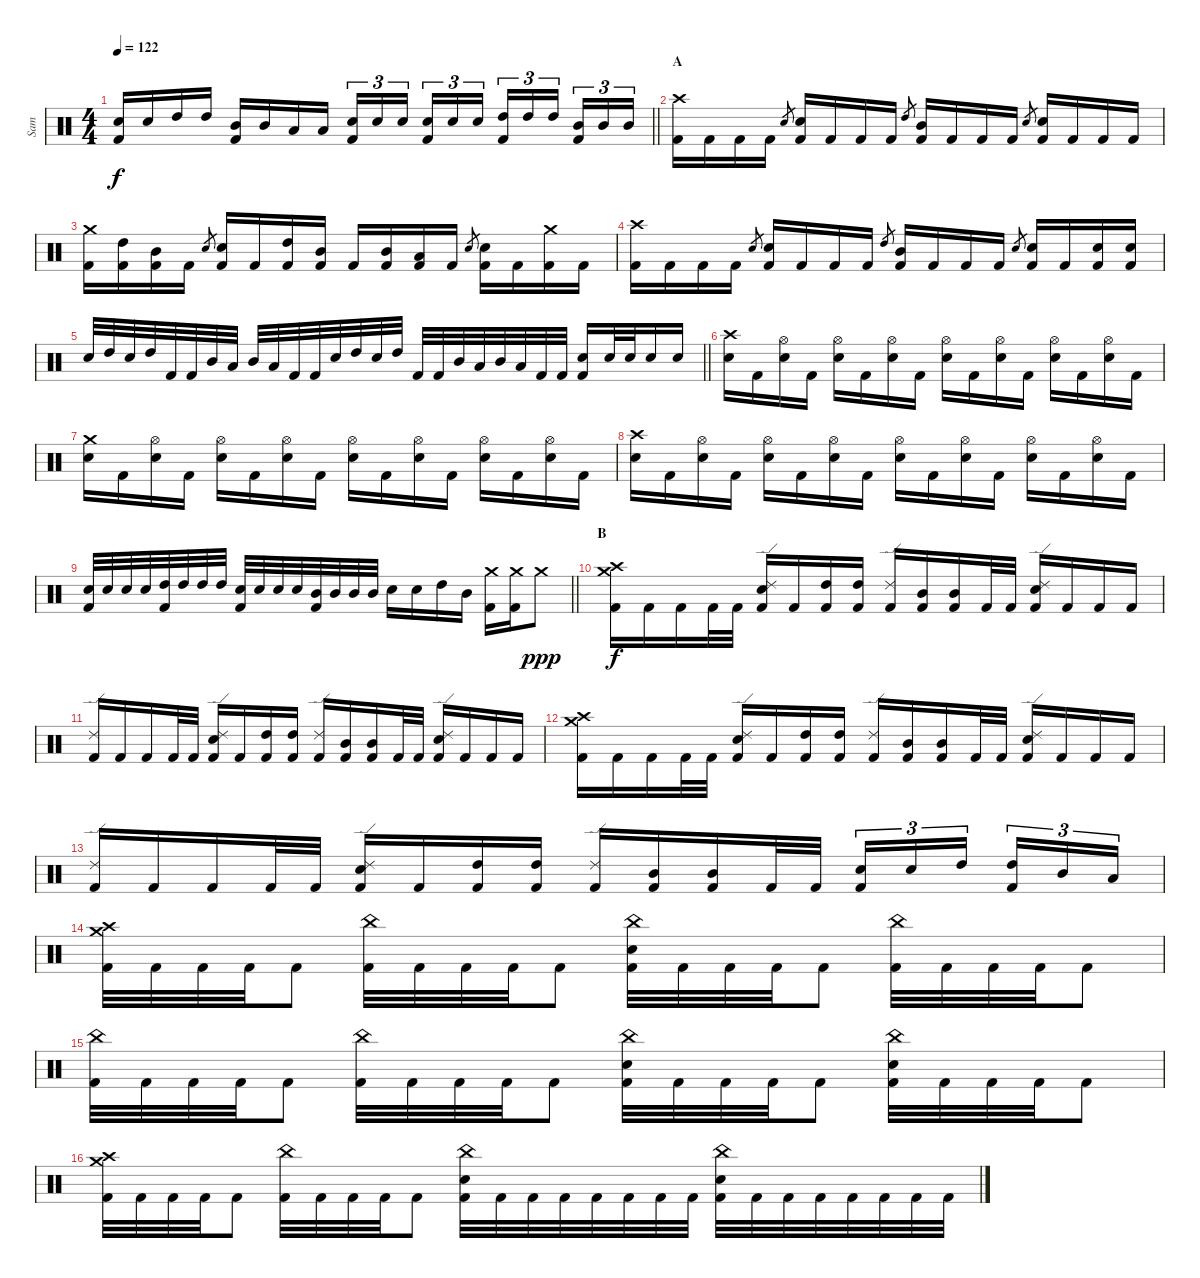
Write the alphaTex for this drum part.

\track ("Sam" "Sam") {solo instrument percussion}
\staff {score}
\articulation defaults
\ts (4 4)
\tempo 122
\clef neutral
\barLineRight lightlight
\ks c
("Electric Snare (hit)" "Kick (hit) 2").16{dy f} "Electric Snare (hit)".16 "High Tom (hit)".16 "High Tom (hit)".16 ("Mid Tom (hit)" "Kick (hit) 2").16 "Mid Tom (hit)".16 "Low Tom (hit)".16 "Low Tom (hit)".16 ("Electric Snare (hit)" "Kick (hit) 2").16{tu (3 2)} "Electric Snare (hit)".16{tu (3 2)} "Electric Snare (hit)".16{tu (3 2) beam splitsecondary} ("Electric Snare (hit)" "Kick (hit) 2").16{tu (3 2)} "Electric Snare (hit)".16{tu (3 2)} "Electric Snare (hit)".16{tu (3 2)} ("High Tom (hit)" "Kick (hit) 2").16{tu (3 2)} "High Tom (hit)".16{tu (3 2)} "High Tom (hit)".16{tu (3 2) beam splitsecondary} ("Mid Tom (hit)" "Kick (hit) 2").16{tu (3 2)} "Mid Tom (hit)".16{tu (3 2)} "Mid Tom (hit)".16{tu (3 2)} |
\section ("" "A")
("Crash high (hit)" "Kick (hit) 2").16 "Kick (hit) 2".16 "Kick (hit) 2".16 "Kick (hit) 2".16 "Electric Snare (hit)".8{gr} ("Electric Snare (hit)" "Kick (hit) 2").16 "Kick (hit) 2".16 "Kick (hit) 2".16 "Kick (hit) 2".16 "High Tom (hit)".8{gr} ("Mid Tom (hit)" "Kick (hit) 2").16 "Kick (hit) 2".16 "Kick (hit) 2".16 "Kick (hit) 2".16 "Electric Snare (hit)".8{gr} ("Electric Snare (hit)" "Kick (hit) 2").16 "Kick (hit) 2".16 "Kick (hit) 2".16 "Kick (hit) 2".16 |
("Crash medium (hit)" "Kick (hit) 2").16 ("High Tom (hit)" "Kick (hit) 2").16 ("Mid Tom (hit)" "Kick (hit) 2").16 "Kick (hit) 2".16 "Electric Snare (hit)".8{gr} ("Electric Snare (hit)" "Kick (hit) 2").16 "Kick (hit) 2".16 ("High Tom (hit)" "Kick (hit) 2").16 ("Mid Tom (hit)" "Kick (hit) 2").16 "Kick (hit) 2".16 ("Mid Tom (hit)" "Kick (hit) 2").16 ("Low Tom (hit)" "Kick (hit) 2").16 "Kick (hit) 2".16 "Electric Snare (hit)".8{gr} ("Electric Snare (hit)" "Kick (hit) 2").16 "Kick (hit) 2".16 ("Crash medium (hit)" "Kick (hit) 2").16 "Kick (hit) 2".16 |
("Crash high (hit)" "Kick (hit) 2").16 "Kick (hit) 2".16 "Kick (hit) 2".16 "Kick (hit) 2".16 "Electric Snare (hit)".8{gr} ("Electric Snare (hit)" "Kick (hit) 2").16 "Kick (hit) 2".16 "Kick (hit) 2".16 "Kick (hit) 2".16 "High Tom (hit)".8{gr} ("Mid Tom (hit)" "Kick (hit) 2").16 "Kick (hit) 2".16 "Kick (hit) 2".16 "Kick (hit) 2".16 "Electric Snare (hit)".8{gr} ("Electric Snare (hit)" "Kick (hit) 2").16 "Kick (hit) 2".16 ("Electric Snare (hit)" "Kick (hit) 2").16 ("Electric Snare (hit)" "Kick (hit) 2").16 |
\barLineRight lightlight "Electric Snare (hit)".32 "High Tom (hit)".32 "Electric Snare (hit)".32 "High Tom (hit)".32 "Kick (hit) 2".32 "Kick (hit) 2".32 "Mid Tom (hit)".32 "Low Tom (hit)".32 "Mid Tom (hit)".32 "Low Tom (hit)".32 "Kick (hit) 2".32 "Kick (hit) 2".32 "Electric Snare (hit)".32 "High Tom (hit)".32 "Electric Snare (hit)".32 "High Tom (hit)".32 "Kick (hit) 2".32 "Kick (hit) 2".32 "Mid Tom (hit)".32 "Low Tom (hit)".32 "Mid Tom (hit)".32 "Low Tom (hit)".32 "Kick (hit) 2".32 "Kick (hit) 2".32
("Electric Snare (hit)" "Kick (hit) 2").16 "Electric Snare (hit)".32 "Electric Snare (hit)".32 "Electric Snare (hit)".16 "Electric Snare (hit)".16 |
\section ("" " ")
("Crash high (hit)" "Electric Snare (hit)").16 "Kick (hit) 2".16 ("Hi-Hat (open)" "Electric Snare (hit)").16 "Kick (hit) 2".16 ("Hi-Hat (open)" "Electric Snare (hit)").16 "Kick (hit) 2".16 ("Hi-Hat (open)" "Electric Snare (hit)").16 "Kick (hit) 2".16 ("Hi-Hat (open)" "Electric Snare (hit)").16 "Kick (hit) 2".16 ("Hi-Hat (open)" "Electric Snare (hit)").16 "Kick (hit) 2".16 ("Hi-Hat (open)" "Electric Snare (hit)").16 "Kick (hit) 2".16 ("Hi-Hat (open)" "Electric Snare (hit)").16 "Kick (hit) 2".16 |
("Crash medium (hit)" "Electric Snare (hit)").16 "Kick (hit) 2".16 ("Hi-Hat (open)" "Electric Snare (hit)").16 "Kick (hit) 2".16 ("Hi-Hat (open)" "Electric Snare (hit)").16 "Kick (hit) 2".16 ("Hi-Hat (open)" "Electric Snare (hit)").16 "Kick (hit) 2".16 ("Hi-Hat (open)" "Electric Snare (hit)").16 "Kick (hit) 2".16 ("Hi-Hat (open)" "Electric Snare (hit)").16 "Kick (hit) 2".16 ("Hi-Hat (open)" "Electric Snare (hit)").16 "Kick (hit) 2".16 ("Hi-Hat (open)" "Electric Snare (hit)").16 "Kick (hit) 2".16 |
("Crash high (hit)" "Electric Snare (hit)").16 "Kick (hit) 2".16 ("Hi-Hat (open)" "Electric Snare (hit)").16 "Kick (hit) 2".16 ("Hi-Hat (open)" "Electric Snare (hit)").16 "Kick (hit) 2".16 ("Hi-Hat (open)" "Electric Snare (hit)").16 "Kick (hit) 2".16 ("Hi-Hat (open)" "Electric Snare (hit)").16 "Kick (hit) 2".16 ("Hi-Hat (open)" "Electric Snare (hit)").16 "Kick (hit) 2".16 ("Hi-Hat (open)" "Electric Snare (hit)").16 "Kick (hit) 2".16 ("Hi-Hat (open)" "Electric Snare (hit)").16 "Kick (hit) 2".16 |
\barLineRight lightlight
("Electric Snare (hit)" "Kick (hit) 2").32 "Electric Snare (hit)".32 "Electric Snare (hit)".32 "Electric Snare (hit)".32 ("High Tom (hit)" "Kick (hit) 2").32 "High Tom (hit)".32 "High Tom (hit)".32 "High Tom (hit)".32 ("Electric Snare (hit)" "Kick (hit) 2").32 "Electric Snare (hit)".32 "Electric Snare (hit)".32 "Electric Snare (hit)".32 ("Mid Tom (hit)" "Kick (hit) 2").32 "Mid Tom (hit)".32 "Mid Tom (hit)".32 "Mid Tom (hit)".32 "Electric Snare (hit)".16 "Electric Snare (hit)".16 "High Tom (hit)".16 "Mid Tom (hit)".16 ("Crash medium (hit)" "Kick (hit) 2").16 ("Crash medium (hit)" "Kick (hit) 2").16 "Crash medium (hit)".8{dy ppp} |
\section ("" "B")
("Crash high (hit)" "Crash medium (hit)" "Kick (hit) 2").16{dy f} "Kick (hit) 2".16 "Kick (hit) 2".16 "Kick (hit) 2".32 "Kick (hit) 2".32 ("Ride (edge) 2" "Electric Snare (hit)" "Kick (hit) 2").16 "Kick (hit) 2".16 ("High Tom (hit)" "Kick (hit) 2").16 ("High Tom (hit)" "Kick (hit) 2").16 ("Ride (edge) 2" "Kick (hit) 2").16 ("Mid Tom (hit)" "Kick (hit) 2").16 ("Mid Tom (hit)" "Kick (hit) 2").16 "Kick (hit) 2".32 "Kick (hit) 2".32 ("Ride (edge) 2" "Electric Snare (hit)" "Kick (hit) 2").16 "Kick (hit) 2".16 "Kick (hit) 2".16 "Kick (hit) 2".16 |
("Ride (edge) 2" "Kick (hit) 2").16 "Kick (hit) 2".16 "Kick (hit) 2".16 "Kick (hit) 2".32 "Kick (hit) 2".32 ("Ride (edge) 2" "Electric Snare (hit)" "Kick (hit) 2").16 "Kick (hit) 2".16 ("High Tom (hit)" "Kick (hit) 2").16 ("High Tom (hit)" "Kick (hit) 2").16 ("Ride (edge) 2" "Kick (hit) 2").16 ("Mid Tom (hit)" "Kick (hit) 2").16 ("Mid Tom (hit)" "Kick (hit) 2").16 "Kick (hit) 2".32 "Kick (hit) 2".32 ("Ride (edge) 2" "Electric Snare (hit)" "Kick (hit) 2").16 "Kick (hit) 2".16 "Kick (hit) 2".16 "Kick (hit) 2".16 |
("Crash high (hit)" "Crash medium (hit)" "Kick (hit) 2").16 "Kick (hit) 2".16 "Kick (hit) 2".16 "Kick (hit) 2".32 "Kick (hit) 2".32 ("Ride (edge) 2" "Electric Snare (hit)" "Kick (hit) 2").16 "Kick (hit) 2".16 ("High Tom (hit)" "Kick (hit) 2").16 ("High Tom (hit)" "Kick (hit) 2").16 ("Ride (edge) 2" "Kick (hit) 2").16 ("Mid Tom (hit)" "Kick (hit) 2").16 ("Mid Tom (hit)" "Kick (hit) 2").16 "Kick (hit) 2".32 "Kick (hit) 2".32 ("Ride (edge) 2" "Electric Snare (hit)" "Kick (hit) 2").16 "Kick (hit) 2".16 "Kick (hit) 2".16 "Kick (hit) 2".16 |
("Ride (edge) 2" "Kick (hit) 2").16 "Kick (hit) 2".16 "Kick (hit) 2".16 "Kick (hit) 2".32 "Kick (hit) 2".32 ("Ride (edge) 2" "Electric Snare (hit)" "Kick (hit) 2").16 "Kick (hit) 2".16 ("High Tom (hit)" "Kick (hit) 2").16 ("High Tom (hit)" "Kick (hit) 2").16 ("Ride (edge) 2" "Kick (hit) 2").16 ("Mid Tom (hit)" "Kick (hit) 2").16 ("Mid Tom (hit)" "Kick (hit) 2").16 "Kick (hit) 2".32 "Kick (hit) 2".32 ("Electric Snare (hit)" "Kick (hit) 2").16{tu (3 2)} "Electric Snare (hit)".16{tu (3 2)} "High Tom (hit)".16{tu (3 2) beam splitsecondary} ("High Tom (hit)" "Kick (hit) 2").16{tu (3 2)} "Mid Tom (hit)".16{tu (3 2)} "Low Tom (hit)".16{tu (3 2)} |
("Crash high (hit)" "Crash medium (hit)" "Kick (hit) 2").32 "Kick (hit) 2".32 "Kick (hit) 2".32 "Kick (hit) 2".32 "Kick (hit) 2".8 ("China (hit)" "Kick (hit) 2").32 "Kick (hit) 2".32 "Kick (hit) 2".32 "Kick (hit) 2".32 "Kick (hit) 2".8 ("China (hit)" "Electric Snare (hit)" "Kick (hit) 2").32 "Kick (hit) 2".32 "Kick (hit) 2".32 "Kick (hit) 2".32 "Kick (hit) 2".8 ("China (hit)" "Kick (hit) 2").32 "Kick (hit) 2".32 "Kick (hit) 2".32 "Kick (hit) 2".32 "Kick (hit) 2".8 |
("China (hit)" "Kick (hit) 2").32 "Kick (hit) 2".32 "Kick (hit) 2".32 "Kick (hit) 2".32 "Kick (hit) 2".8 ("China (hit)" "Kick (hit) 2").32 "Kick (hit) 2".32 "Kick (hit) 2".32 "Kick (hit) 2".32 "Kick (hit) 2".8 ("China (hit)" "Electric Snare (hit)" "Kick (hit) 2").32 "Kick (hit) 2".32 "Kick (hit) 2".32 "Kick (hit) 2".32 "Kick (hit) 2".8 ("China (hit)" "Electric Snare (hit)" "Kick (hit) 2").32 "Kick (hit) 2".32 "Kick (hit) 2".32 "Kick (hit) 2".32 "Kick (hit) 2".8 |
("Crash high (hit)" "Crash medium (hit)" "Kick (hit) 2").32 "Kick (hit) 2".32 "Kick (hit) 2".32 "Kick (hit) 2".32 "Kick (hit) 2".8 ("China (hit)" "Kick (hit) 2").32 "Kick (hit) 2".32 "Kick (hit) 2".32 "Kick (hit) 2".32 "Kick (hit) 2".8 ("China (hit)" "Electric Snare (hit)" "Kick (hit) 2").32 "Kick (hit) 2".32 "Kick (hit) 2".32 "Kick (hit) 2".32 "Kick (hit) 2".32 "Kick (hit) 2".32 "Kick (hit) 2".32 "Kick (hit) 2".32 ("China (hit)" "Electric Snare (hit)" "Kick (hit) 2").32 "Kick (hit) 2".32 "Kick (hit) 2".32 "Kick (hit) 2".32 "Kick (hit) 2".32 "Kick (hit) 2".32 "Kick (hit) 2".32 "Kick (hit) 2".32
